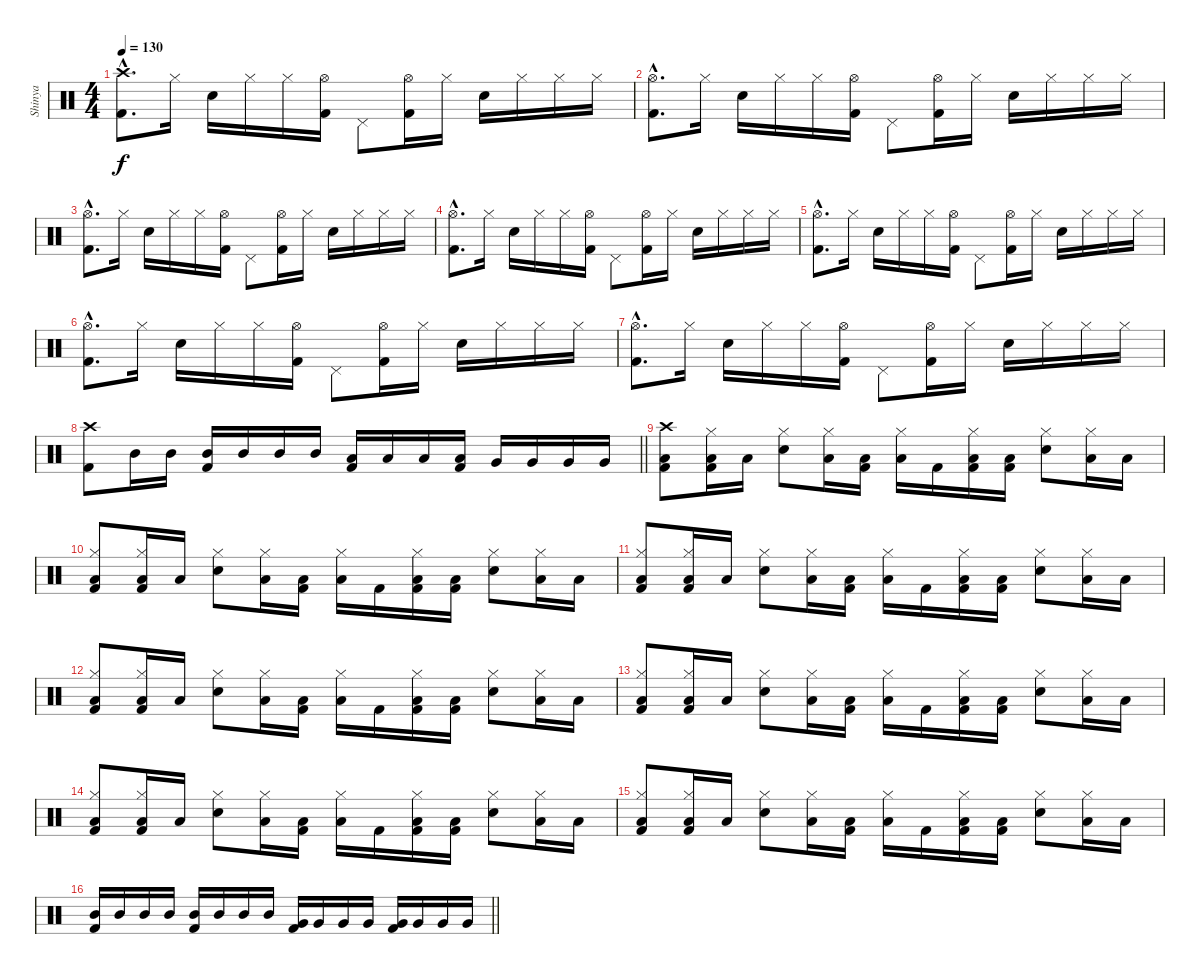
\track ("Shinya" "Shinya") {instrument percussion}
\staff {score}
\articulation defaults
\ts (4 4)
\tempo 130
\clef neutral
\ks c
("Crash high (hit)"{hac} "Kick (hit) 2"{hac}).8{d dy f} "Hi-Hat (closed)".16 "Electric Snare (hit)".16 "Hi-Hat (closed)".16 "Hi-Hat (closed)".16 ("Hi-Hat (open)" "Kick (hit) 2").16 "Pedal Hi-Hat (hit)".8 ("Hi-Hat (open)" "Kick (hit) 2").16 "Hi-Hat (closed)".16 "Electric Snare (hit)".16 "Hi-Hat (closed)".16 "Hi-Hat (closed)".16 "Hi-Hat (closed)".16 |
("Hi-Hat (open)"{hac} "Kick (hit) 2"{hac}).8{d} "Hi-Hat (closed)".16 "Electric Snare (hit)".16 "Hi-Hat (closed)".16 "Hi-Hat (closed)".16 ("Hi-Hat (open)" "Kick (hit) 2").16 "Pedal Hi-Hat (hit)".8 ("Hi-Hat (open)" "Kick (hit) 2").16 "Hi-Hat (closed)".16 "Electric Snare (hit)".16 "Hi-Hat (closed)".16 "Hi-Hat (closed)".16 "Hi-Hat (closed)".16 |
("Hi-Hat (open)"{hac} "Kick (hit) 2"{hac}).8{d} "Hi-Hat (closed)".16 "Electric Snare (hit)".16 "Hi-Hat (closed)".16 "Hi-Hat (closed)".16 ("Hi-Hat (open)" "Kick (hit) 2").16 "Pedal Hi-Hat (hit)".8 ("Hi-Hat (open)" "Kick (hit) 2").16 "Hi-Hat (closed)".16 "Electric Snare (hit)".16 "Hi-Hat (closed)".16 "Hi-Hat (closed)".16 "Hi-Hat (closed)".16 |
("Hi-Hat (open)"{hac} "Kick (hit) 2"{hac}).8{d} "Hi-Hat (closed)".16 "Electric Snare (hit)".16 "Hi-Hat (closed)".16 "Hi-Hat (closed)".16 ("Hi-Hat (open)" "Kick (hit) 2").16 "Pedal Hi-Hat (hit)".8 ("Hi-Hat (open)" "Kick (hit) 2").16 "Hi-Hat (closed)".16 "Electric Snare (hit)".16 "Hi-Hat (closed)".16 "Hi-Hat (closed)".16 "Hi-Hat (closed)".16 |
("Hi-Hat (open)"{hac} "Kick (hit) 2"{hac}).8{d} "Hi-Hat (closed)".16 "Electric Snare (hit)".16 "Hi-Hat (closed)".16 "Hi-Hat (closed)".16 ("Hi-Hat (open)" "Kick (hit) 2").16 "Pedal Hi-Hat (hit)".8 ("Hi-Hat (open)" "Kick (hit) 2").16 "Hi-Hat (closed)".16 "Electric Snare (hit)".16 "Hi-Hat (closed)".16 "Hi-Hat (closed)".16 "Hi-Hat (closed)".16 |
("Hi-Hat (open)"{hac} "Kick (hit) 2"{hac}).8{d} "Hi-Hat (closed)".16 "Electric Snare (hit)".16 "Hi-Hat (closed)".16 "Hi-Hat (closed)".16 ("Hi-Hat (open)" "Kick (hit) 2").16 "Pedal Hi-Hat (hit)".8 ("Hi-Hat (open)" "Kick (hit) 2").16 "Hi-Hat (closed)".16 "Electric Snare (hit)".16 "Hi-Hat (closed)".16 "Hi-Hat (closed)".16 "Hi-Hat (closed)".16 |
("Hi-Hat (open)"{hac} "Kick (hit) 2"{hac}).8{d} "Hi-Hat (closed)".16 "Electric Snare (hit)".16 "Hi-Hat (closed)".16 "Hi-Hat (closed)".16 ("Hi-Hat (open)" "Kick (hit) 2").16 "Pedal Hi-Hat (hit)".8 ("Hi-Hat (open)" "Kick (hit) 2").16 "Hi-Hat (closed)".16 "Electric Snare (hit)".16 "Hi-Hat (closed)".16 "Hi-Hat (closed)".16 "Hi-Hat (closed)".16 |
\barLineRight lightlight
("Crash high (hit)" "Kick (hit) 2").8 "Mid Tom (hit)".16 "Mid Tom (hit)".16 ("Mid Tom (hit)" "Kick (hit) 2").16 "Mid Tom (hit)".16 "Mid Tom (hit)".16 "Mid Tom (hit)".16 ("Low Tom (hit)" "Kick (hit) 2").16 "Low Tom (hit)".16 "Low Tom (hit)".16 ("Low Tom (hit)" "Kick (hit) 2").16 "Very Low Tom (hit)".16 "Very Low Tom (hit)".16 "Very Low Tom (hit)".16 "Very Low Tom (hit)".16 |
("Crash high (hit)" "Low Floor Tom (hit)" "Kick (hit) 2").8 ("Hi-Hat (closed)" "Low Floor Tom (hit)" "Kick (hit) 2").16 "Low Floor Tom (hit)".16 ("Hi-Hat (closed)" "Electric Snare (hit)").8 ("Hi-Hat (closed)" "Low Floor Tom (hit)").16 ("Low Floor Tom (hit)" "Kick (hit) 2").16 ("Hi-Hat (closed)" "Low Floor Tom (hit)").16 "Kick (hit) 2".16 ("Hi-Hat (closed)" "Low Floor Tom (hit)" "Kick (hit) 2").16 ("Low Floor Tom (hit)" "Kick (hit) 2").16 ("Hi-Hat (closed)" "Electric Snare (hit)").8 ("Hi-Hat (closed)" "Low Floor Tom (hit)").16 "Low Floor Tom (hit)".16 |
("Hi-Hat (closed)" "Low Floor Tom (hit)" "Kick (hit) 2").8 ("Hi-Hat (closed)" "Low Floor Tom (hit)" "Kick (hit) 2").16 "Low Floor Tom (hit)".16 ("Hi-Hat (closed)" "Electric Snare (hit)").8 ("Hi-Hat (closed)" "Low Floor Tom (hit)").16 ("Low Floor Tom (hit)" "Kick (hit) 2").16 ("Hi-Hat (closed)" "Low Floor Tom (hit)").16 "Kick (hit) 2".16 ("Hi-Hat (closed)" "Low Floor Tom (hit)" "Kick (hit) 2").16 ("Low Floor Tom (hit)" "Kick (hit) 2").16 ("Hi-Hat (closed)" "Electric Snare (hit)").8 ("Hi-Hat (closed)" "Low Floor Tom (hit)").16 "Low Floor Tom (hit)".16 |
("Hi-Hat (closed)" "Low Floor Tom (hit)" "Kick (hit) 2").8 ("Hi-Hat (closed)" "Low Floor Tom (hit)" "Kick (hit) 2").16 "Low Floor Tom (hit)".16 ("Hi-Hat (closed)" "Electric Snare (hit)").8 ("Hi-Hat (closed)" "Low Floor Tom (hit)").16 ("Low Floor Tom (hit)" "Kick (hit) 2").16 ("Hi-Hat (closed)" "Low Floor Tom (hit)").16 "Kick (hit) 2".16 ("Hi-Hat (closed)" "Low Floor Tom (hit)" "Kick (hit) 2").16 ("Low Floor Tom (hit)" "Kick (hit) 2").16 ("Hi-Hat (closed)" "Electric Snare (hit)").8 ("Hi-Hat (closed)" "Low Floor Tom (hit)").16 "Low Floor Tom (hit)".16 |
("Hi-Hat (closed)" "Low Floor Tom (hit)" "Kick (hit) 2").8 ("Hi-Hat (closed)" "Low Floor Tom (hit)" "Kick (hit) 2").16 "Low Floor Tom (hit)".16 ("Hi-Hat (closed)" "Electric Snare (hit)").8 ("Hi-Hat (closed)" "Low Floor Tom (hit)").16 ("Low Floor Tom (hit)" "Kick (hit) 2").16 ("Hi-Hat (closed)" "Low Floor Tom (hit)").16 "Kick (hit) 2".16 ("Hi-Hat (closed)" "Low Floor Tom (hit)" "Kick (hit) 2").16 ("Low Floor Tom (hit)" "Kick (hit) 2").16 ("Hi-Hat (closed)" "Electric Snare (hit)").8 ("Hi-Hat (closed)" "Low Floor Tom (hit)").16 "Low Floor Tom (hit)".16 |
("Hi-Hat (closed)" "Low Floor Tom (hit)" "Kick (hit) 2").8 ("Hi-Hat (closed)" "Low Floor Tom (hit)" "Kick (hit) 2").16 "Low Floor Tom (hit)".16 ("Hi-Hat (closed)" "Electric Snare (hit)").8 ("Hi-Hat (closed)" "Low Floor Tom (hit)").16 ("Low Floor Tom (hit)" "Kick (hit) 2").16 ("Hi-Hat (closed)" "Low Floor Tom (hit)").16 "Kick (hit) 2".16 ("Hi-Hat (closed)" "Low Floor Tom (hit)" "Kick (hit) 2").16 ("Low Floor Tom (hit)" "Kick (hit) 2").16 ("Hi-Hat (closed)" "Electric Snare (hit)").8 ("Hi-Hat (closed)" "Low Floor Tom (hit)").16 "Low Floor Tom (hit)".16 |
("Hi-Hat (closed)" "Low Floor Tom (hit)" "Kick (hit) 2").8 ("Hi-Hat (closed)" "Low Floor Tom (hit)" "Kick (hit) 2").16 "Low Floor Tom (hit)".16 ("Hi-Hat (closed)" "Electric Snare (hit)").8 ("Hi-Hat (closed)" "Low Floor Tom (hit)").16 ("Low Floor Tom (hit)" "Kick (hit) 2").16 ("Hi-Hat (closed)" "Low Floor Tom (hit)").16 "Kick (hit) 2".16 ("Hi-Hat (closed)" "Low Floor Tom (hit)" "Kick (hit) 2").16 ("Low Floor Tom (hit)" "Kick (hit) 2").16 ("Hi-Hat (closed)" "Electric Snare (hit)").8 ("Hi-Hat (closed)" "Low Floor Tom (hit)").16 "Low Floor Tom (hit)".16 |
("Hi-Hat (closed)" "Low Floor Tom (hit)" "Kick (hit) 2").8 ("Hi-Hat (closed)" "Low Floor Tom (hit)" "Kick (hit) 2").16 "Low Floor Tom (hit)".16 ("Hi-Hat (closed)" "Electric Snare (hit)").8 ("Hi-Hat (closed)" "Low Floor Tom (hit)").16 ("Low Floor Tom (hit)" "Kick (hit) 2").16 ("Hi-Hat (closed)" "Low Floor Tom (hit)").16 "Kick (hit) 2".16 ("Hi-Hat (closed)" "Low Floor Tom (hit)" "Kick (hit) 2").16 ("Low Floor Tom (hit)" "Kick (hit) 2").16 ("Hi-Hat (closed)" "Electric Snare (hit)").8 ("Hi-Hat (closed)" "Low Floor Tom (hit)").16 "Low Floor Tom (hit)".16 |
\barLineRight lightlight
("Mid Tom (hit)" "Kick (hit) 2").16 "Mid Tom (hit)".16 "Mid Tom (hit)".16 "Mid Tom (hit)".16 ("Mid Tom (hit)" "Kick (hit) 2").16 "Mid Tom (hit)".16 "Mid Tom (hit)".16 "Mid Tom (hit)".16 ("Very Low Tom (hit)" "Kick (hit) 2").16 "Very Low Tom (hit)".16 "Very Low Tom (hit)".16 "Very Low Tom (hit)".16 ("Very Low Tom (hit)" "Kick (hit) 2").16 "Very Low Tom (hit)".16 "Very Low Tom (hit)".16 "Very Low Tom (hit)".16
